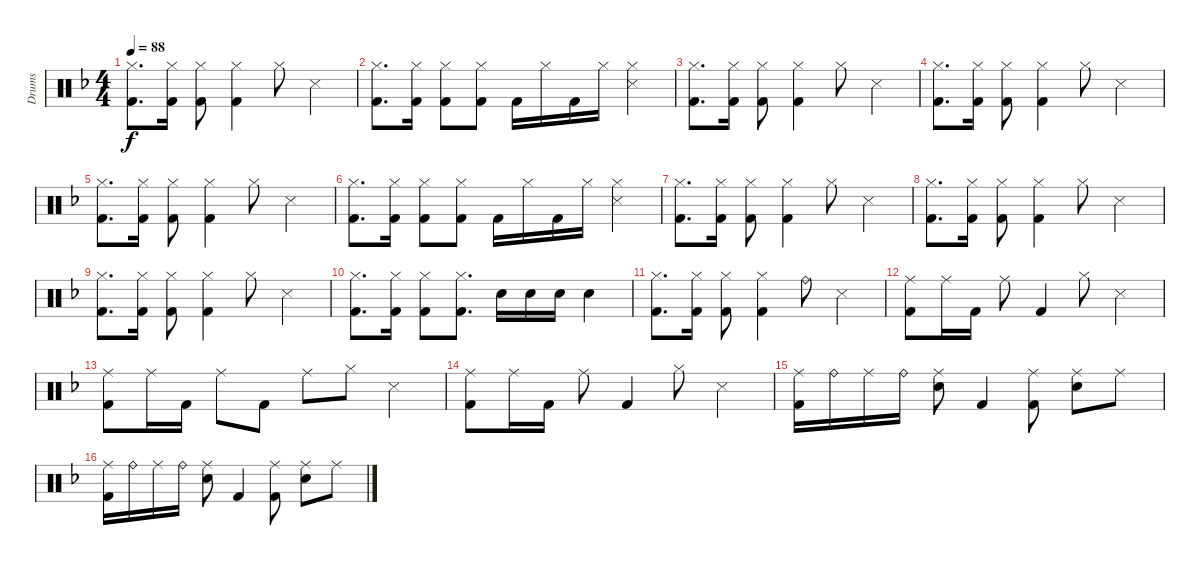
\track ("Drums" "Drums") {instrument percussion}
\staff {score}
\articulation defaults
\ts (4 4)
\tempo 88
\clef neutral
\ks dminor
("Hi-Hat (closed)" "Kick (hit) 2").8{d dy f} ("Hi-Hat (closed)" "Kick (hit) 2").16 ("Hi-Hat (closed)" "Kick (hit) 2").8 ("Hi-Hat (closed)" "Kick (hit) 2").4 "Hi-Hat (closed)".8 "Snare (side stick) 3".4 |
("Hi-Hat (closed)" "Kick (hit) 2").8{d} ("Hi-Hat (closed)" "Kick (hit) 2").16 ("Hi-Hat (closed)" "Kick (hit) 2").8 ("Hi-Hat (closed)" "Kick (hit) 2").8 "Kick (hit) 2".16 "Hi-Hat (closed)".16 "Kick (hit) 2".16 "Hi-Hat (closed)".16 ("Hi-Hat (closed)" "Snare (side stick) 3").4 |
("Hi-Hat (closed)" "Kick (hit) 2").8{d} ("Hi-Hat (closed)" "Kick (hit) 2").16 ("Hi-Hat (closed)" "Kick (hit) 2").8 ("Hi-Hat (closed)" "Kick (hit) 2").4 "Hi-Hat (closed)".8 "Snare (side stick) 3".4 |
("Hi-Hat (closed)" "Kick (hit) 2").8{d} ("Hi-Hat (closed)" "Kick (hit) 2").16 ("Hi-Hat (closed)" "Kick (hit) 2").8 ("Hi-Hat (closed)" "Kick (hit) 2").4 "Hi-Hat (closed)".8 "Snare (side stick) 3".4 |
("Hi-Hat (closed)" "Kick (hit) 2").8{d} ("Hi-Hat (closed)" "Kick (hit) 2").16 ("Hi-Hat (closed)" "Kick (hit) 2").8 ("Hi-Hat (closed)" "Kick (hit) 2").4 "Hi-Hat (closed)".8 "Snare (side stick) 3".4 |
("Hi-Hat (closed)" "Kick (hit) 2").8{d} ("Hi-Hat (closed)" "Kick (hit) 2").16 ("Hi-Hat (closed)" "Kick (hit) 2").8 ("Hi-Hat (closed)" "Kick (hit) 2").8 "Kick (hit) 2".16 "Hi-Hat (closed)".16 "Kick (hit) 2".16 "Hi-Hat (closed)".16 ("Hi-Hat (closed)" "Snare (side stick) 3").4 |
("Hi-Hat (closed)" "Kick (hit) 2").8{d} ("Hi-Hat (closed)" "Kick (hit) 2").16 ("Hi-Hat (closed)" "Kick (hit) 2").8 ("Hi-Hat (closed)" "Kick (hit) 2").4 "Hi-Hat (closed)".8 "Snare (side stick) 3".4 |
("Hi-Hat (closed)" "Kick (hit) 2").8{d} ("Hi-Hat (closed)" "Kick (hit) 2").16 ("Hi-Hat (closed)" "Kick (hit) 2").8 ("Hi-Hat (closed)" "Kick (hit) 2").4 "Hi-Hat (closed)".8 "Snare (side stick) 3".4 |
("Hi-Hat (closed)" "Kick (hit) 2").8{d} ("Hi-Hat (closed)" "Kick (hit) 2").16 ("Hi-Hat (closed)" "Kick (hit) 2").8 ("Hi-Hat (closed)" "Kick (hit) 2").4 "Hi-Hat (closed)".8 "Snare (side stick) 3".4 |
("Hi-Hat (closed)" "Kick (hit) 2").8{d} ("Hi-Hat (closed)" "Kick (hit) 2").16 ("Hi-Hat (closed)" "Kick (hit) 2").8 ("Hi-Hat (closed)" "Kick (hit) 2").8{d} "Snare (hit) 2".16 "Snare (hit) 2".16 "Snare (hit) 2".16 "Snare (hit) 2".4 |
("Hi-Hat (closed)" "Kick (hit) 2").8{d} ("Hi-Hat (closed)" "Kick (hit) 2").16 ("Hi-Hat (closed)" "Kick (hit) 2").8 ("Hi-Hat (closed)" "Kick (hit) 2").4 "Ride (bell)".8 "Snare (side stick) 3".4 |
("Ride (middle)" "Kick (hit) 2").8 "Ride (middle)".16 "Kick (hit) 2".16 "Ride (middle)".8 "Kick (hit) 2".4 "Hi-Hat (closed)".8 "Snare (side stick) 3".4 |
("Ride (middle)" "Kick (hit) 2").8 "Ride (middle)".16 "Kick (hit) 2".16 "Ride (middle)".8 "Kick (hit) 2".8 "Ride (middle)".8 "Hi-Hat (closed)".8 "Snare (side stick) 3".4 |
("Ride (middle)" "Kick (hit) 2").8 "Ride (middle)".16 "Kick (hit) 2".16 "Ride (middle)".8 "Kick (hit) 2".4 "Hi-Hat (closed)".8 "Snare (side stick) 3".4 |
("Ride (middle)" "Kick (hit) 2").16 "Ride (bell)".16 "Ride (middle)".16 "Ride (bell)".16 ("Ride (middle)" "Snare (hit) 2").8 "Kick (hit) 2".4 ("Ride (middle)" "Kick (hit) 2").8 ("Ride (middle)" "Snare (hit) 2").8 "Ride (middle)".8 |
("Ride (middle)" "Kick (hit) 2").16 "Ride (bell)".16 "Ride (middle)".16 "Ride (bell)".16 ("Ride (middle)" "Snare (hit) 2").8 "Kick (hit) 2".4 ("Ride (middle)" "Kick (hit) 2").8 ("Ride (middle)" "Snare (hit) 2").8 "Ride (middle)".8
